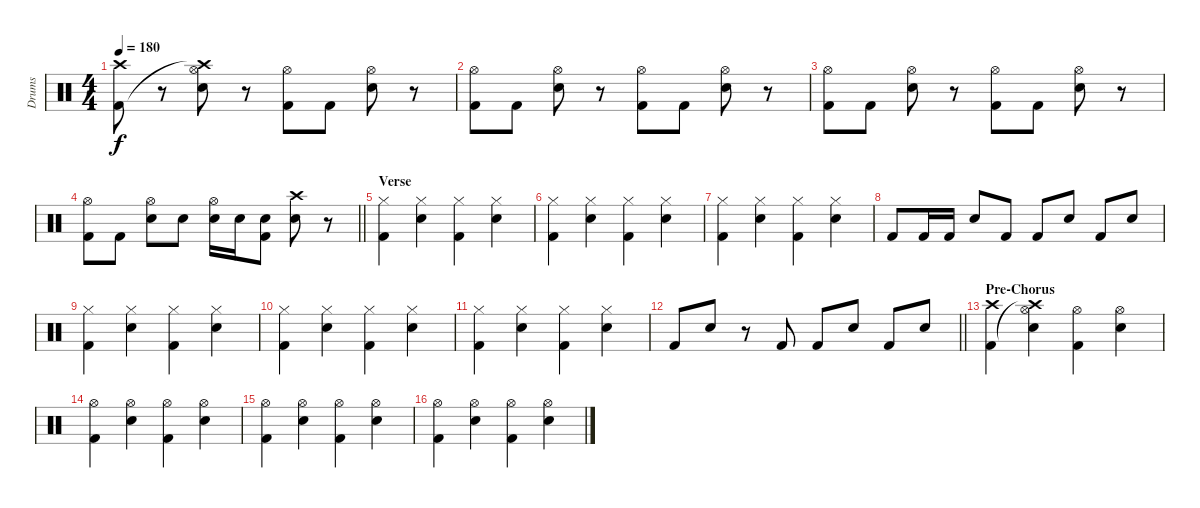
\track ("Drums" "Drums") {instrument percussion}
\staff {score}
\articulation defaults
\ts (4 4)
\tempo 180
\clef neutral
\ks c
("Crash high (hit)" "Kick (hit) 2").8{dy f} r.8 ("Hi-Hat (open)" "Crash high (hit)"{t} "Snare (hit) 2").8 r.8 ("Hi-Hat (open)" "Kick (hit) 2").8 "Kick (hit) 2".8 ("Hi-Hat (open)" "Snare (hit) 2").8 r.8 |
("Hi-Hat (open)" "Kick (hit) 2").8 "Kick (hit) 2".8 ("Hi-Hat (open)" "Snare (hit) 2").8 r.8 ("Hi-Hat (open)" "Kick (hit) 2").8 "Kick (hit) 2".8 ("Hi-Hat (open)" "Snare (hit) 2").8 r.8 |
("Hi-Hat (open)" "Kick (hit) 2").8 "Kick (hit) 2".8 ("Hi-Hat (open)" "Snare (hit) 2").8 r.8 ("Hi-Hat (open)" "Kick (hit) 2").8 "Kick (hit) 2".8 ("Hi-Hat (open)" "Snare (hit) 2").8 r.8 |
\barLineRight lightlight
("Hi-Hat (open)" "Kick (hit) 2").8 "Kick (hit) 2".8 ("Hi-Hat (open)" "Snare (hit) 2").8 "Snare (hit) 2".8 ("Hi-Hat (open)" "Snare (hit) 2").16 "Snare (hit) 2".16 ("Snare (hit) 2" "Kick (hit) 2").8 ("Crash high (hit)" "Snare (hit) 2").8 r.8 |
\section ("" "Verse")
("Hi-Hat (closed)" "Kick (hit) 2").4 ("Hi-Hat (closed)" "Snare (hit) 2").4 ("Hi-Hat (closed)" "Kick (hit) 2").4 ("Hi-Hat (closed)" "Snare (hit) 2").4 |
("Hi-Hat (closed)" "Kick (hit) 2").4 ("Hi-Hat (closed)" "Snare (hit) 2").4 ("Hi-Hat (closed)" "Kick (hit) 2").4 ("Hi-Hat (closed)" "Snare (hit) 2").4 |
("Hi-Hat (closed)" "Kick (hit) 2").4 ("Hi-Hat (closed)" "Snare (hit) 2").4 ("Hi-Hat (closed)" "Kick (hit) 2").4 ("Hi-Hat (closed)" "Snare (hit) 2").4 |
"Kick (hit) 2".8 "Kick (hit) 2".16 "Kick (hit) 2".16 "Snare (hit) 2".8 "Kick (hit) 2".8 "Kick (hit) 2".8 "Snare (hit) 2".8 "Kick (hit) 2".8 "Snare (hit) 2".8 |
("Hi-Hat (closed)" "Kick (hit) 2").4 ("Hi-Hat (closed)" "Snare (hit) 2").4 ("Hi-Hat (closed)" "Kick (hit) 2").4 ("Hi-Hat (closed)" "Snare (hit) 2").4 |
("Hi-Hat (closed)" "Kick (hit) 2").4 ("Hi-Hat (closed)" "Snare (hit) 2").4 ("Hi-Hat (closed)" "Kick (hit) 2").4 ("Hi-Hat (closed)" "Snare (hit) 2").4 |
("Hi-Hat (closed)" "Kick (hit) 2").4 ("Hi-Hat (closed)" "Snare (hit) 2").4 ("Hi-Hat (closed)" "Kick (hit) 2").4 ("Hi-Hat (closed)" "Snare (hit) 2").4 |
\barLineRight lightlight "Kick (hit) 2".8 "Snare (hit) 2".8
r.8 "Kick (hit) 2".8 "Kick (hit) 2".8 "Snare (hit) 2".8 "Kick (hit) 2".8 "Snare (hit) 2".8 |
\section ("" "Pre-Chorus")
("Crash high (hit)" "Kick (hit) 2").4 ("Hi-Hat (open)" "Crash high (hit)"{t} "Snare (hit) 2").4 ("Hi-Hat (open)" "Kick (hit) 2").4 ("Hi-Hat (open)" "Snare (hit) 2").4 |
("Hi-Hat (open)" "Kick (hit) 2").4 ("Hi-Hat (open)" "Snare (hit) 2").4 ("Hi-Hat (open)" "Kick (hit) 2").4 ("Hi-Hat (open)" "Snare (hit) 2").4 |
("Hi-Hat (open)" "Kick (hit) 2").4 ("Hi-Hat (open)" "Snare (hit) 2").4 ("Hi-Hat (open)" "Kick (hit) 2").4 ("Hi-Hat (open)" "Snare (hit) 2").4 |
("Hi-Hat (open)" "Kick (hit) 2").4 ("Hi-Hat (open)" "Snare (hit) 2").4 ("Hi-Hat (open)" "Kick (hit) 2").4 ("Hi-Hat (open)" "Snare (hit) 2").4
